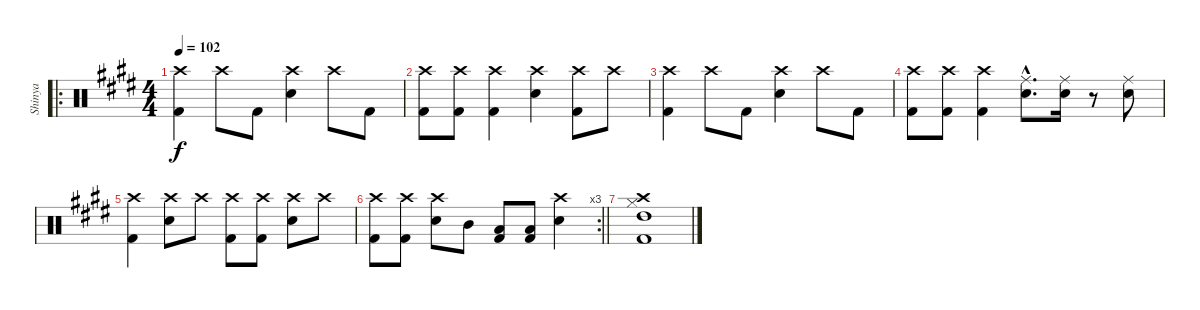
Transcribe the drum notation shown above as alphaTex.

\track ("Shinya" "Shinya") {instrument percussion}
\staff {score}
\articulation defaults
\ro
\ts (4 4)
\tempo 102
\clef neutral
\ks e
("Crash high (hit)" "Kick (hit) 2").4{dy f} "Crash high (hit)".8 "Kick (hit) 2".8 ("Crash high (hit)" "Snare (hit) 2").4 "Crash high (hit)".8 "Kick (hit) 2".8 |
("Crash high (hit)" "Kick (hit) 2").8 ("Crash high (hit)" "Kick (hit) 2").8 ("Crash high (hit)" "Kick (hit) 2").4 ("Crash high (hit)" "Snare (hit) 2").4 ("Crash high (hit)" "Kick (hit) 2").8 "Crash high (hit)".8 |
("Crash high (hit)" "Kick (hit) 2").4 "Crash high (hit)".8 "Kick (hit) 2".8 ("Crash high (hit)" "Snare (hit) 2").4 "Crash high (hit)".8 "Kick (hit) 2".8 |
("Crash high (hit)" "Kick (hit) 2").8 ("Crash high (hit)" "Kick (hit) 2").8 ("Crash high (hit)" "Kick (hit) 2").4 ("Ride (middle)"{hac} "Snare (hit) 2"{hac}).8{d} ("Ride (middle)" "Snare (hit) 2").16 r.8 ("Ride (middle)" "Snare (hit) 2").8 |
("Crash high (hit)" "Kick (hit) 2").4 ("Crash high (hit)" "Snare (hit) 2").8 "Crash high (hit)".8 ("Crash high (hit)" "Kick (hit) 2").8 ("Crash high (hit)" "Kick (hit) 2").8 ("Crash high (hit)" "Snare (hit) 2").8 "Crash high (hit)".8 |
\rc 3
\barLineRight lightlight
("Crash high (hit)" "Kick (hit) 2").8 ("Crash high (hit)" "Kick (hit) 2").8 ("Crash high (hit)" "Snare (hit) 2").8 "Mid Tom (hit)".8 ("Low Tom (hit)" "Kick (hit) 2").8 ("Low Floor Tom (hit)" "Kick (hit) 2").8 ("Crash high (hit)" "Snare (hit) 2").4 |
("Crash high (hit)" "Hi-Hat (closed)" "High Tom (hit)" "Kick (hit) 2").1
